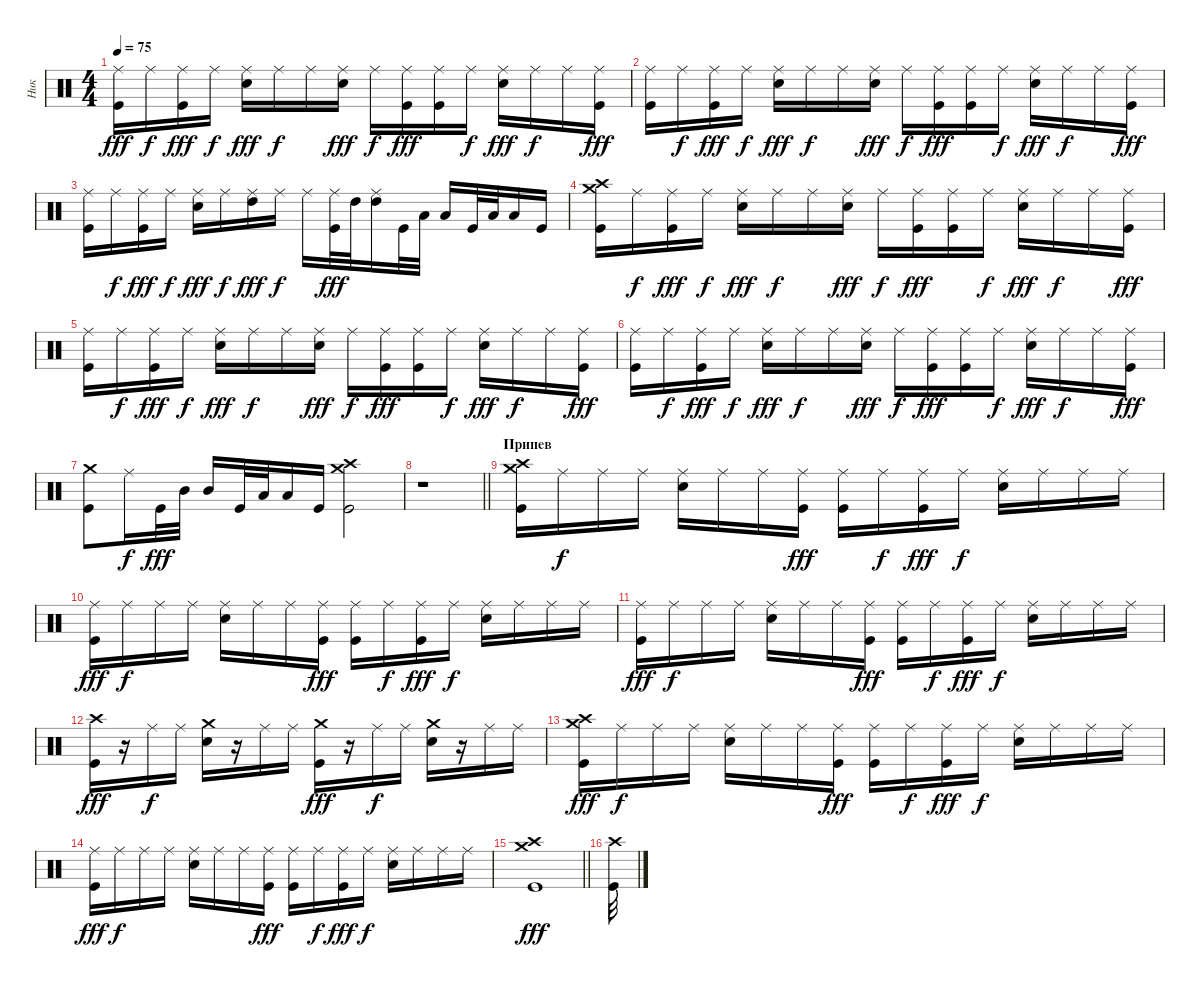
\track ("Ник" "Ник") {instrument percussion}
\staff {score}
\articulation defaults
\ts (4 4)
\tempo 75
\clef neutral
\ks c
("Ride (middle)" "Kick (hit)").16{dy fff} "Ride (middle)".16{dy f} ("Ride (middle)" "Kick (hit)").16{dy fff} "Ride (middle)".16{dy f} ("Ride (middle)" "Snare (hit) 2").16{dy fff} "Ride (middle)".16{dy f} "Ride (middle)".16 ("Ride (middle)" "Snare (hit) 2").16{dy fff} "Ride (middle)".16{dy f} ("Ride (middle)" "Kick (hit)").16{dy fff} ("Ride (middle)" "Kick (hit)").16 "Ride (middle)".16{dy f} ("Ride (middle)" "Snare (hit) 2").16{dy fff} "Ride (middle)".16{dy f} "Ride (middle)".16 ("Ride (middle)" "Kick (hit)").16{dy fff} |
("Ride (middle)" "Kick (hit)").16 "Ride (middle)".16{dy f} ("Ride (middle)" "Kick (hit)").16{dy fff} "Ride (middle)".16{dy f} ("Ride (middle)" "Snare (hit) 2").16{dy fff} "Ride (middle)".16{dy f} "Ride (middle)".16 ("Ride (middle)" "Snare (hit) 2").16{dy fff} "Ride (middle)".16{dy f} ("Ride (middle)" "Kick (hit)").16{dy fff} ("Ride (middle)" "Kick (hit)").16 "Ride (middle)".16{dy f} ("Ride (middle)" "Snare (hit) 2").16{dy fff} "Ride (middle)".16{dy f} "Ride (middle)".16 ("Ride (middle)" "Kick (hit)").16{dy fff} |
("Ride (middle)" "Kick (hit)").16 "Ride (middle)".16{dy f} ("Ride (middle)" "Kick (hit)").16{dy fff} "Ride (middle)".16{dy f} ("Ride (middle)" "Snare (hit) 2").16{dy fff} "Ride (middle)".16{dy f} ("Ride (middle)" "High Tom (hit)").16{dy fff} "Ride (middle)".16{dy f} "Ride (middle)".16 ("Ride (middle)" "Kick (hit)").32{dy fff} "High Tom (hit)".32 ("Ride (middle)" "High Tom (hit)").16 "Kick (hit)".32 "Low Tom (hit)".32 "Low Tom (hit)".16 "Kick (hit)".32 "Low Floor Tom (hit)".32 "Low Floor Tom (hit)".16 "Kick (hit)".16 |
("Crash medium (hit)" "Crash high (hit)" "Kick (hit)").16 "Ride (middle)".16{dy f} ("Ride (middle)" "Kick (hit)").16{dy fff} "Ride (middle)".16{dy f} ("Ride (middle)" "Snare (hit) 2").16{dy fff} "Ride (middle)".16{dy f} "Ride (middle)".16 ("Ride (middle)" "Snare (hit) 2").16{dy fff} "Ride (middle)".16{dy f} ("Ride (middle)" "Kick (hit)").16{dy fff} ("Ride (middle)" "Kick (hit)").16 "Ride (middle)".16{dy f} ("Ride (middle)" "Snare (hit) 2").16{dy fff} "Ride (middle)".16{dy f} "Ride (middle)".16 ("Ride (middle)" "Kick (hit)").16{dy fff} |
("Ride (middle)" "Kick (hit)").16 "Ride (middle)".16{dy f} ("Ride (middle)" "Kick (hit)").16{dy fff} "Ride (middle)".16{dy f} ("Ride (middle)" "Snare (hit) 2").16{dy fff} "Ride (middle)".16{dy f} "Ride (middle)".16 ("Ride (middle)" "Snare (hit) 2").16{dy fff} "Ride (middle)".16{dy f} ("Ride (middle)" "Kick (hit)").16{dy fff} ("Ride (middle)" "Kick (hit)").16 "Ride (middle)".16{dy f} ("Ride (middle)" "Snare (hit) 2").16{dy fff} "Ride (middle)".16{dy f} "Ride (middle)".16 ("Ride (middle)" "Kick (hit)").16{dy fff} |
("Ride (middle)" "Kick (hit)").16 "Ride (middle)".16{dy f} ("Ride (middle)" "Kick (hit)").16{dy fff} "Ride (middle)".16{dy f} ("Ride (middle)" "Snare (hit) 2").16{dy fff} "Ride (middle)".16{dy f} "Ride (middle)".16 ("Ride (middle)" "Snare (hit) 2").16{dy fff} "Ride (middle)".16{dy f} ("Ride (middle)" "Kick (hit)").16{dy fff} ("Ride (middle)" "Kick (hit)").16 "Ride (middle)".16{dy f} ("Ride (middle)" "Snare (hit) 2").16{dy fff} "Ride (middle)".16{dy f} "Ride (middle)".16 ("Ride (middle)" "Kick (hit)").16{dy fff} |
("Crash medium (hit)" "Kick (hit)").8 "Ride (middle)".16{dy f} "Kick (hit)".32{dy fff} "Mid Tom (hit)".32 "Mid Tom (hit)".16 "Kick (hit)".32 "Low Floor Tom (hit)".32 "Low Floor Tom (hit)".16 "Kick (hit)".16 ("Crash medium (hit)" "Crash high (hit)" "Kick (hit)").2 |
\barLineRight lightlight
r.1 |
\section ("" "Припев")
("Crash medium (hit)" "Crash high (hit)" "Kick (hit)").16 "Ride (middle)".16{dy f} "Ride (middle)".16 "Ride (middle)".16 ("Ride (middle)" "Snare (hit) 2").16 "Ride (middle)".16 "Ride (middle)".16 ("Ride (middle)" "Kick (hit)").16{dy fff} ("Ride (middle)" "Kick (hit)").16 "Ride (middle)".16{dy f} ("Ride (middle)" "Kick (hit)").16{dy fff} "Ride (middle)".16{dy f} ("Ride (middle)" "Snare (hit) 2").16 "Ride (middle)".16 "Ride (middle)".16 "Ride (middle)".16 |
("Ride (middle)" "Kick (hit)").16{dy fff} "Ride (middle)".16{dy f} "Ride (middle)".16 "Ride (middle)".16 ("Ride (middle)" "Snare (hit) 2").16 "Ride (middle)".16 "Ride (middle)".16 ("Ride (middle)" "Kick (hit)").16{dy fff} ("Ride (middle)" "Kick (hit)").16 "Ride (middle)".16{dy f} ("Ride (middle)" "Kick (hit)").16{dy fff} "Ride (middle)".16{dy f} ("Ride (middle)" "Snare (hit) 2").16 "Ride (middle)".16 "Ride (middle)".16 "Ride (middle)".16 |
("Ride (middle)" "Kick (hit)").16{dy fff} "Ride (middle)".16{dy f} "Ride (middle)".16 "Ride (middle)".16 ("Ride (middle)" "Snare (hit) 2").16 "Ride (middle)".16 "Ride (middle)".16 ("Ride (middle)" "Kick (hit)").16{dy fff} ("Ride (middle)" "Kick (hit)").16 "Ride (middle)".16{dy f} ("Ride (middle)" "Kick (hit)").16{dy fff} "Ride (middle)".16{dy f} ("Ride (middle)" "Snare (hit) 2").16 "Ride (middle)".16 "Ride (middle)".16 "Ride (middle)".16 |
("Crash high (hit)" "Kick (hit)").16{dy fff} r.16 "Ride (middle)".16{dy f} "Ride (middle)".16 ("Crash medium (hit)" "Snare (hit) 2").16 r.16 "Ride (middle)".16 "Ride (middle)".16 ("Crash medium (hit)" "Kick (hit)").16{dy fff} r.16 "Ride (middle)".16{dy f} "Ride (middle)".16 ("Crash medium (hit)" "Snare (hit) 2").16 r.16 "Ride (middle)".16 "Ride (middle)".16 |
("Crash medium (hit)" "Crash high (hit)" "Kick (hit)").16{dy fff} "Ride (middle)".16{dy f} "Ride (middle)".16 "Ride (middle)".16 ("Ride (middle)" "Snare (hit) 2").16 "Ride (middle)".16 "Ride (middle)".16 ("Ride (middle)" "Kick (hit)").16{dy fff} ("Ride (middle)" "Kick (hit)").16 "Ride (middle)".16{dy f} ("Ride (middle)" "Kick (hit)").16{dy fff} "Ride (middle)".16{dy f} ("Ride (middle)" "Snare (hit) 2").16 "Ride (middle)".16 "Ride (middle)".16 "Ride (middle)".16 |
("Ride (middle)" "Kick (hit)").16{dy fff} "Ride (middle)".16{dy f} "Ride (middle)".16 "Ride (middle)".16 ("Ride (middle)" "Snare (hit) 2").16 "Ride (middle)".16 "Ride (middle)".16 ("Ride (middle)" "Kick (hit)").16{dy fff} ("Ride (middle)" "Kick (hit)").16 "Ride (middle)".16{dy f} ("Ride (middle)" "Kick (hit)").16{dy fff} "Ride (middle)".16{dy f} ("Ride (middle)" "Snare (hit) 2").16 "Ride (middle)".16 "Ride (middle)".16 "Ride (middle)".16 |
\barLineRight lightlight
("Crash medium (hit)" "Crash high (hit)" "Kick (hit)").1{dy fff} |
("Crash high (hit)" "Kick (hit)").32
